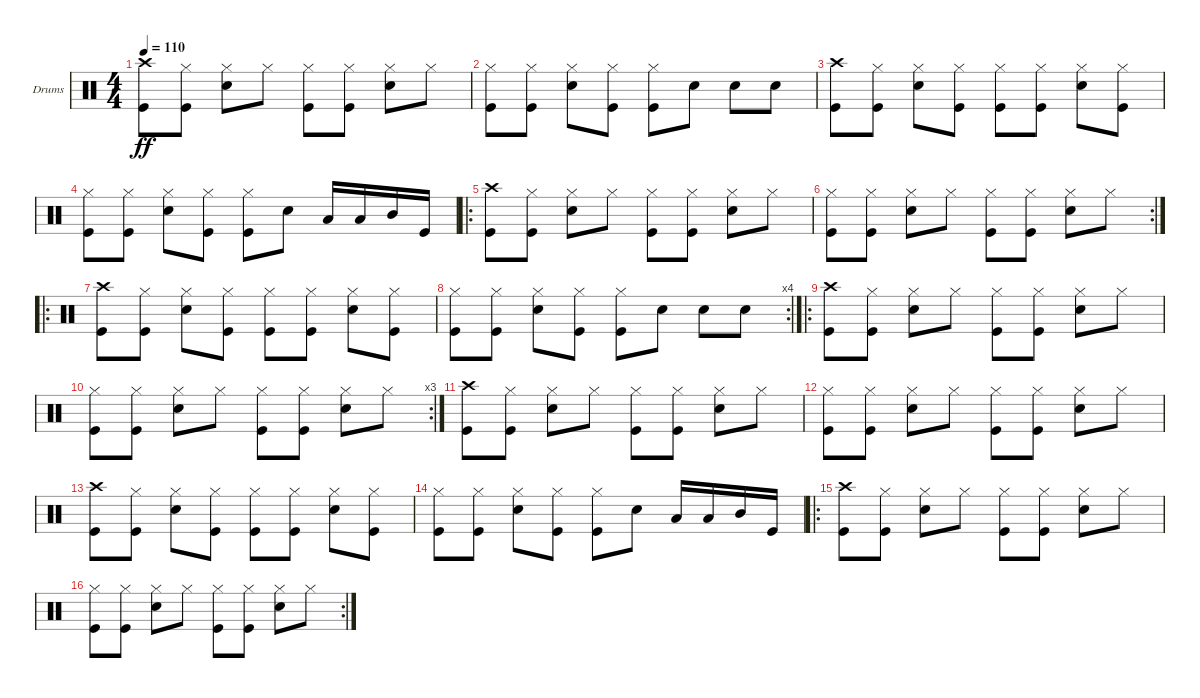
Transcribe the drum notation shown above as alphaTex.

\defaultSystemsLayout 4
\bracketExtendMode groupsimilarinstruments
\firstSystemTrackNameOrientation horizontal
\otherSystemsTrackNameOrientation horizontal
\track ("Drumkit" "Drums") {instrument percussion}
\staff {score}
\articulation defaults
\ts (4 4)
\tempo 110
\clef neutral
\ks c
("Kick (hit)" "Crash high (hit)").8{dy ff} ("Hi-Hat (closed)" "Kick (hit)").8 ("Hi-Hat (closed)" "Snare (hit) 2").8 "Hi-Hat (closed)".8 ("Hi-Hat (closed)" "Kick (hit)").8 ("Hi-Hat (closed)" "Kick (hit)").8 ("Hi-Hat (closed)" "Snare (hit) 2").8 "Hi-Hat (closed)".8 |
("Kick (hit)" "Hi-Hat (closed)").8 ("Kick (hit)" "Hi-Hat (closed)").8 ("Snare (hit) 2" "Hi-Hat (closed)").8 ("Kick (hit)" "Hi-Hat (closed)").8 ("Kick (hit)" "Hi-Hat (closed)").8 "Snare (hit) 2".8 "Snare (hit) 2".8 "Snare (hit) 2".8 |
("Kick (hit)" "Crash high (hit)").8 ("Kick (hit)" "Hi-Hat (closed)").8 ("Snare (hit) 2" "Hi-Hat (closed)").8 ("Kick (hit)" "Hi-Hat (closed)").8 ("Kick (hit)" "Hi-Hat (closed)").8 ("Kick (hit)" "Hi-Hat (closed)").8 ("Snare (hit) 2" "Hi-Hat (closed)").8 ("Kick (hit)" "Hi-Hat (closed)").8 |
("Kick (hit)" "Hi-Hat (closed)").8 ("Kick (hit)" "Hi-Hat (closed)").8 ("Snare (hit) 2" "Hi-Hat (closed)").8 ("Kick (hit)" "Hi-Hat (closed)").8 ("Kick (hit)" "Hi-Hat (closed)").8 "Snare (hit) 2".8 "Low Tom (hit)".16 "Low Tom (hit)".16 "Mid Tom (hit)".16 "Kick (hit)".16 |
\ro
("Kick (hit)" "Crash high (hit)").8 ("Hi-Hat (closed)" "Kick (hit)").8 ("Hi-Hat (closed)" "Snare (hit) 2").8 "Hi-Hat (closed)".8 ("Hi-Hat (closed)" "Kick (hit)").8 ("Hi-Hat (closed)" "Kick (hit)").8 ("Hi-Hat (closed)" "Snare (hit) 2").8 "Hi-Hat (closed)".8 |
\rc 2
("Hi-Hat (closed)" "Kick (hit)").8 ("Hi-Hat (closed)" "Kick (hit)").8 ("Hi-Hat (closed)" "Snare (hit) 2").8 "Hi-Hat (closed)".8 ("Hi-Hat (closed)" "Kick (hit)").8 ("Hi-Hat (closed)" "Kick (hit)").8 ("Hi-Hat (closed)" "Snare (hit) 2").8 "Hi-Hat (closed)".8 |
\ro
("Kick (hit)" "Crash high (hit)").8 ("Kick (hit)" "Hi-Hat (closed)").8 ("Snare (hit) 2" "Hi-Hat (closed)").8 ("Kick (hit)" "Hi-Hat (closed)").8 ("Kick (hit)" "Hi-Hat (closed)").8 ("Kick (hit)" "Hi-Hat (closed)").8 ("Snare (hit) 2" "Hi-Hat (closed)").8 ("Kick (hit)" "Hi-Hat (closed)").8 |
\rc 4
("Kick (hit)" "Hi-Hat (closed)").8 ("Kick (hit)" "Hi-Hat (closed)").8 ("Snare (hit) 2" "Hi-Hat (closed)").8 ("Kick (hit)" "Hi-Hat (closed)").8 ("Kick (hit)" "Hi-Hat (closed)").8 "Snare (hit) 2".8 "Snare (hit) 2".8 "Snare (hit) 2".8 |
\ro
("Kick (hit)" "Crash high (hit)").8 ("Hi-Hat (closed)" "Kick (hit)").8 ("Hi-Hat (closed)" "Snare (hit) 2").8 "Hi-Hat (closed)".8 ("Hi-Hat (closed)" "Kick (hit)").8 ("Hi-Hat (closed)" "Kick (hit)").8 ("Hi-Hat (closed)" "Snare (hit) 2").8 "Hi-Hat (closed)".8 |
\rc 3
("Hi-Hat (closed)" "Kick (hit)").8 ("Hi-Hat (closed)" "Kick (hit)").8 ("Hi-Hat (closed)" "Snare (hit) 2").8 "Hi-Hat (closed)".8 ("Hi-Hat (closed)" "Kick (hit)").8 ("Hi-Hat (closed)" "Kick (hit)").8 ("Hi-Hat (closed)" "Snare (hit) 2").8 "Hi-Hat (closed)".8 |
("Kick (hit)" "Crash high (hit)").8 ("Hi-Hat (closed)" "Kick (hit)").8 ("Hi-Hat (closed)" "Snare (hit) 2").8 "Hi-Hat (closed)".8 ("Hi-Hat (closed)" "Kick (hit)").8 ("Hi-Hat (closed)" "Kick (hit)").8 ("Hi-Hat (closed)" "Snare (hit) 2").8 "Hi-Hat (closed)".8 |
("Hi-Hat (closed)" "Kick (hit)").8 ("Hi-Hat (closed)" "Kick (hit)").8 ("Hi-Hat (closed)" "Snare (hit) 2").8 "Hi-Hat (closed)".8 ("Hi-Hat (closed)" "Kick (hit)").8 ("Hi-Hat (closed)" "Kick (hit)").8 ("Hi-Hat (closed)" "Snare (hit) 2").8 "Hi-Hat (closed)".8 |
("Kick (hit)" "Crash high (hit)").8 ("Kick (hit)" "Hi-Hat (closed)").8 ("Snare (hit) 2" "Hi-Hat (closed)").8 ("Kick (hit)" "Hi-Hat (closed)").8 ("Kick (hit)" "Hi-Hat (closed)").8 ("Kick (hit)" "Hi-Hat (closed)").8 ("Snare (hit) 2" "Hi-Hat (closed)").8 ("Kick (hit)" "Hi-Hat (closed)").8 |
("Kick (hit)" "Hi-Hat (closed)").8 ("Kick (hit)" "Hi-Hat (closed)").8 ("Snare (hit) 2" "Hi-Hat (closed)").8 ("Kick (hit)" "Hi-Hat (closed)").8 ("Kick (hit)" "Hi-Hat (closed)").8 "Snare (hit) 2".8 "Low Tom (hit)".16 "Low Tom (hit)".16 "Mid Tom (hit)".16 "Kick (hit)".16 |
\ro
("Kick (hit)" "Crash high (hit)").8 ("Hi-Hat (closed)" "Kick (hit)").8 ("Hi-Hat (closed)" "Snare (hit) 2").8 "Hi-Hat (closed)".8 ("Hi-Hat (closed)" "Kick (hit)").8 ("Hi-Hat (closed)" "Kick (hit)").8 ("Hi-Hat (closed)" "Snare (hit) 2").8 "Hi-Hat (closed)".8 |
\rc 2
("Hi-Hat (closed)" "Kick (hit)").8 ("Hi-Hat (closed)" "Kick (hit)").8 ("Hi-Hat (closed)" "Snare (hit) 2").8 "Hi-Hat (closed)".8 ("Hi-Hat (closed)" "Kick (hit)").8 ("Hi-Hat (closed)" "Kick (hit)").8 ("Hi-Hat (closed)" "Snare (hit) 2").8 "Hi-Hat (closed)".8
